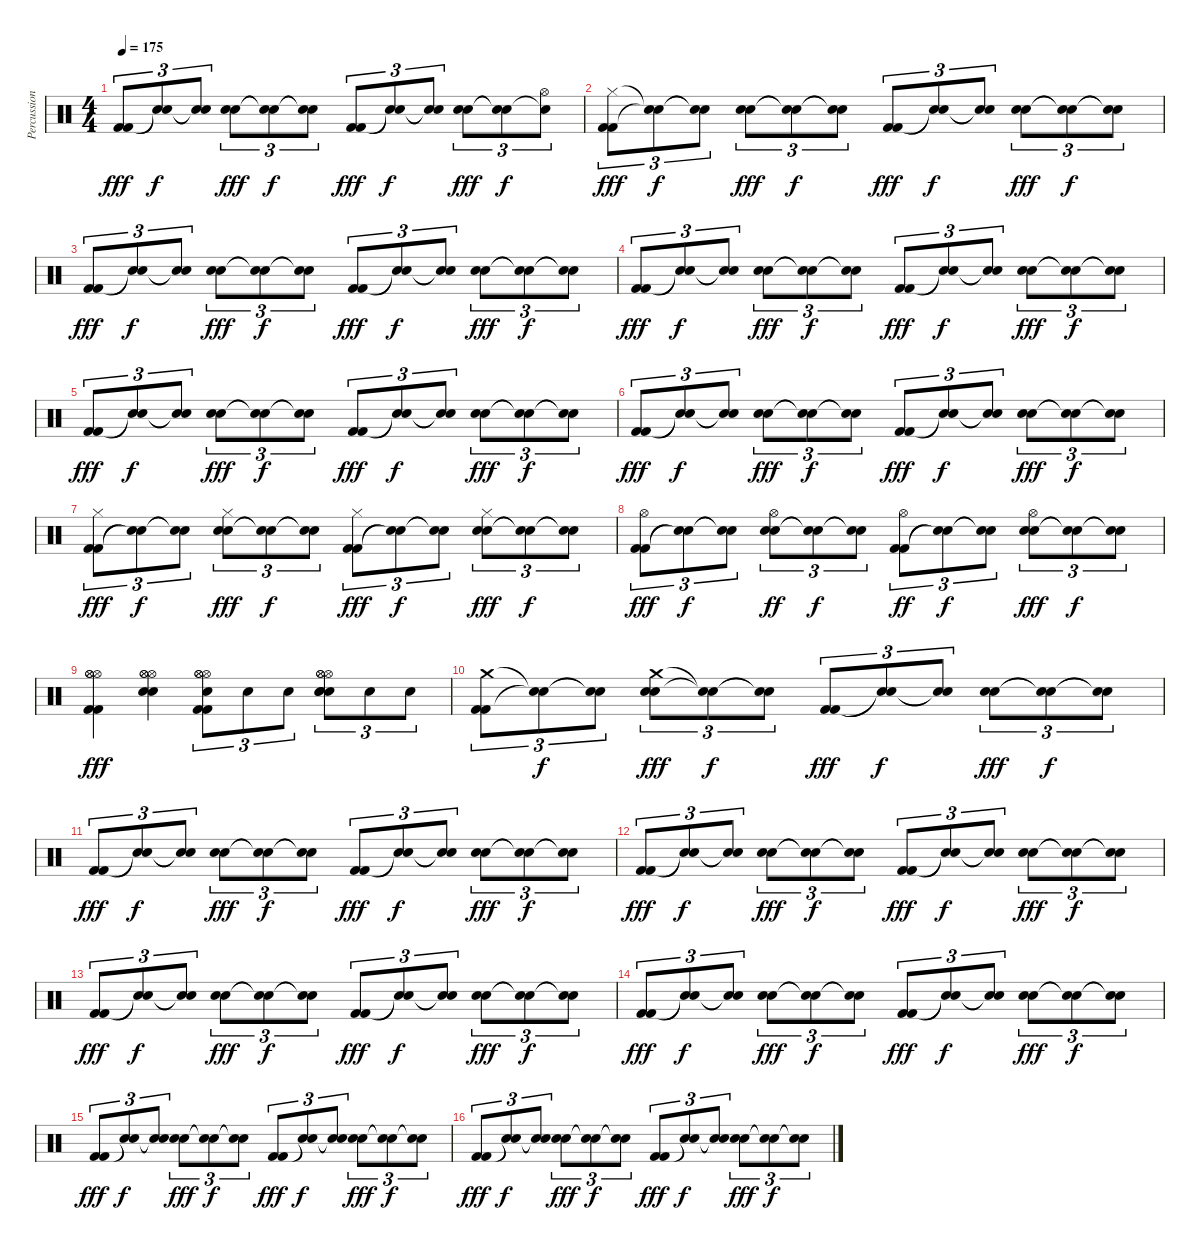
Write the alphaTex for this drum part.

\track ("Percussion" "Percussion") {instrument percussion}
\staff {score}
\articulation defaults
\ts (4 4)
\tempo 175
\clef neutral
\ks c
("Kick (hit) 2" "Kick (hit) 2").8{tu (3 2) dy fff} ("Snare (hit)"{t} "Snare (hit)"{t}).8{tu (3 2) dy f} ("Snare (hit)"{t} "Snare (hit)"{t}).8{tu (3 2)} ("Electric Snare (hit)" "Electric Snare (hit)").8{tu (3 2) dy fff} ("Snare (hit)"{t} "Snare (hit)"{t}).8{tu (3 2) dy f} ("Snare (hit)"{t} "Snare (hit)"{t}).8{tu (3 2)} ("Kick (hit) 2" "Kick (hit) 2").8{tu (3 2) dy fff} ("Snare (hit)"{t} "Snare (hit)"{t}).8{tu (3 2) dy f} ("Snare (hit)"{t} "Snare (hit)"{t}).8{tu (3 2)} ("Electric Snare (hit)" "Electric Snare (hit)").8{tu (3 2) dy fff} ("Snare (hit)"{t} "Snare (hit)"{t}).8{tu (3 2) dy f} ("Hi-Hat (open)" "Snare (hit)"{t}).8{tu (3 2)} |
("Kick (hit) 2" "Hi-Hat (closed)" "Kick (hit) 2").8{tu (3 2) dy fff} ("Snare (hit)"{t} "Snare (hit)"{t}).8{tu (3 2) dy f} ("Snare (hit)"{t} "Snare (hit)"{t}).8{tu (3 2)} ("Electric Snare (hit)" "Electric Snare (hit)").8{tu (3 2) dy fff} ("Snare (hit)"{t} "Snare (hit)"{t}).8{tu (3 2) dy f} ("Snare (hit)"{t} "Snare (hit)"{t}).8{tu (3 2)} ("Kick (hit) 2" "Kick (hit) 2").8{tu (3 2) dy fff} ("Snare (hit)"{t} "Snare (hit)"{t}).8{tu (3 2) dy f} ("Snare (hit)"{t} "Snare (hit)"{t}).8{tu (3 2)} ("Electric Snare (hit)" "Electric Snare (hit)").8{tu (3 2) dy fff} ("Snare (hit)"{t} "Snare (hit)"{t}).8{tu (3 2) dy f} ("Snare (hit)"{t} "Snare (hit)"{t}).8{tu (3 2)} |
("Kick (hit) 2" "Kick (hit) 2").8{tu (3 2) dy fff} ("Snare (hit)"{t} "Snare (hit)"{t}).8{tu (3 2) dy f} ("Snare (hit)"{t} "Snare (hit)"{t}).8{tu (3 2)} ("Electric Snare (hit)" "Electric Snare (hit)").8{tu (3 2) dy fff} ("Snare (hit)"{t} "Snare (hit)"{t}).8{tu (3 2) dy f} ("Snare (hit)"{t} "Snare (hit)"{t}).8{tu (3 2)} ("Kick (hit) 2" "Kick (hit) 2").8{tu (3 2) dy fff} ("Snare (hit)"{t} "Snare (hit)"{t}).8{tu (3 2) dy f} ("Snare (hit)"{t} "Snare (hit)"{t}).8{tu (3 2)} ("Electric Snare (hit)" "Electric Snare (hit)").8{tu (3 2) dy fff} ("Snare (hit)"{t} "Snare (hit)"{t}).8{tu (3 2) dy f} ("Snare (hit)"{t} "Snare (hit)"{t}).8{tu (3 2)} |
("Kick (hit) 2" "Kick (hit) 2").8{tu (3 2) dy fff} ("Snare (hit)"{t} "Snare (hit)"{t}).8{tu (3 2) dy f} ("Snare (hit)"{t} "Snare (hit)"{t}).8{tu (3 2)} ("Electric Snare (hit)" "Electric Snare (hit)").8{tu (3 2) dy fff} ("Snare (hit)"{t} "Snare (hit)"{t}).8{tu (3 2) dy f} ("Snare (hit)"{t} "Snare (hit)"{t}).8{tu (3 2)} ("Kick (hit) 2" "Kick (hit) 2").8{tu (3 2) dy fff} ("Snare (hit)"{t} "Snare (hit)"{t}).8{tu (3 2) dy f} ("Snare (hit)"{t} "Snare (hit)"{t}).8{tu (3 2)} ("Electric Snare (hit)" "Electric Snare (hit)").8{tu (3 2) dy fff} ("Snare (hit)"{t} "Snare (hit)"{t}).8{tu (3 2) dy f} ("Snare (hit)"{t} "Snare (hit)"{t}).8{tu (3 2)} |
("Kick (hit) 2" "Kick (hit) 2").8{tu (3 2) dy fff} ("Snare (hit)"{t} "Snare (hit)"{t}).8{tu (3 2) dy f} ("Snare (hit)"{t} "Snare (hit)"{t}).8{tu (3 2)} ("Electric Snare (hit)" "Electric Snare (hit)").8{tu (3 2) dy fff} ("Snare (hit)"{t} "Snare (hit)"{t}).8{tu (3 2) dy f} ("Snare (hit)"{t} "Snare (hit)"{t}).8{tu (3 2)} ("Kick (hit) 2" "Kick (hit) 2").8{tu (3 2) dy fff} ("Snare (hit)"{t} "Snare (hit)"{t}).8{tu (3 2) dy f} ("Snare (hit)"{t} "Snare (hit)"{t}).8{tu (3 2)} ("Electric Snare (hit)" "Electric Snare (hit)").8{tu (3 2) dy fff} ("Snare (hit)"{t} "Snare (hit)"{t}).8{tu (3 2) dy f} ("Snare (hit)"{t} "Snare (hit)"{t}).8{tu (3 2)} |
("Kick (hit) 2" "Kick (hit) 2").8{tu (3 2) dy fff} ("Snare (hit)"{t} "Snare (hit)"{t}).8{tu (3 2) dy f} ("Snare (hit)"{t} "Snare (hit)"{t}).8{tu (3 2)} ("Electric Snare (hit)" "Electric Snare (hit)").8{tu (3 2) dy fff} ("Snare (hit)"{t} "Snare (hit)"{t}).8{tu (3 2) dy f} ("Snare (hit)"{t} "Snare (hit)"{t}).8{tu (3 2)} ("Kick (hit) 2" "Kick (hit) 2").8{tu (3 2) dy fff} ("Snare (hit)"{t} "Snare (hit)"{t}).8{tu (3 2) dy f} ("Snare (hit)"{t} "Snare (hit)"{t}).8{tu (3 2)} ("Electric Snare (hit)" "Electric Snare (hit)").8{tu (3 2) dy fff} ("Snare (hit)"{t} "Snare (hit)"{t}).8{tu (3 2) dy f} ("Snare (hit)"{t} "Snare (hit)"{t}).8{tu (3 2)} |
("Kick (hit) 2" "Kick (hit) 2" "Hi-Hat (closed)").8{tu (3 2) dy fff} ("Snare (hit)"{t} "Snare (hit)"{t}).8{tu (3 2) dy f} ("Snare (hit)"{t} "Snare (hit)"{t}).8{tu (3 2)} ("Electric Snare (hit)" "Electric Snare (hit)" "Hi-Hat (closed)").8{tu (3 2) dy fff} ("Snare (hit)"{t} "Snare (hit)"{t}).8{tu (3 2) dy f} ("Snare (hit)"{t} "Snare (hit)"{t}).8{tu (3 2)} ("Kick (hit) 2" "Kick (hit) 2" "Hi-Hat (closed)").8{tu (3 2) dy fff} ("Snare (hit)"{t} "Snare (hit)"{t}).8{tu (3 2) dy f} ("Snare (hit)"{t} "Snare (hit)"{t}).8{tu (3 2)} ("Electric Snare (hit)" "Electric Snare (hit)" "Hi-Hat (closed)").8{tu (3 2) dy fff} ("Snare (hit)"{t} "Snare (hit)"{t}).8{tu (3 2) dy f} ("Snare (hit)"{t} "Snare (hit)"{t}).8{tu (3 2)} |
("Kick (hit) 2" "Kick (hit) 2" "Hi-Hat (open)").8{tu (3 2) dy fff} ("Snare (hit)"{t} "Snare (hit)"{t}).8{tu (3 2) dy f} ("Snare (hit)"{t} "Snare (hit)"{t}).8{tu (3 2)} ("Electric Snare (hit)" "Electric Snare (hit)" "Hi-Hat (open)").8{tu (3 2) dy ff} ("Snare (hit)"{t} "Snare (hit)"{t}).8{tu (3 2) dy f} ("Snare (hit)"{t} "Snare (hit)"{t}).8{tu (3 2)} ("Kick (hit) 2" "Kick (hit) 2" "Hi-Hat (open)").8{tu (3 2) dy ff} ("Snare (hit)"{t} "Snare (hit)"{t}).8{tu (3 2) dy f} ("Snare (hit)"{t} "Snare (hit)"{t}).8{tu (3 2)} ("Electric Snare (hit)" "Electric Snare (hit)" "Hi-Hat (open)").8{tu (3 2) dy fff} ("Snare (hit)"{t} "Snare (hit)"{t}).8{tu (3 2) dy f} ("Snare (hit)"{t} "Snare (hit)"{t}).8{tu (3 2)} |
("Hi-Hat (open)" "Hi-Hat (open)" "Hi-Hat (open)" "Kick (hit) 2" "Kick (hit) 2").4{dy fff} ("Hi-Hat (open)" "Hi-Hat (open)" "Hi-Hat (open)" "Electric Snare (hit)" "Electric Snare (hit)").4 ("Hi-Hat (open)" "Hi-Hat (open)" "Hi-Hat (open)" "Snare (hit) 2" "Kick (hit) 2" "Kick (hit) 2").8{tu (3 2)} "Snare (hit) 2".8{tu (3 2)} "Snare (hit) 2".8{tu (3 2)} ("Hi-Hat (open)" "Hi-Hat (open)" "Hi-Hat (open)" "Snare (hit) 2" "Electric Snare (hit)" "Electric Snare (hit)").8{tu (3 2)} "Snare (hit) 2".8{tu (3 2)} "Snare (hit) 2".8{tu (3 2)} |
("Kick (hit) 2" "Crash medium (hit)" "Kick (hit) 2").8{tu (3 2)} ("Snare (hit)"{t} "Snare (hit)"{t}).8{tu (3 2) dy f} ("Snare (hit)"{t} "Snare (hit)"{t}).8{tu (3 2)} ("Electric Snare (hit)" "Crash medium (hit)" "Electric Snare (hit)").8{tu (3 2) dy fff} ("Snare (hit)"{t} "Snare (hit)"{t}).8{tu (3 2) dy f} ("Snare (hit)"{t} "Snare (hit)"{t}).8{tu (3 2)} ("Kick (hit) 2" "Kick (hit) 2").8{tu (3 2) dy fff} ("Snare (hit)"{t} "Snare (hit)"{t}).8{tu (3 2) dy f} ("Snare (hit)"{t} "Snare (hit)"{t}).8{tu (3 2)} ("Electric Snare (hit)" "Electric Snare (hit)").8{tu (3 2) dy fff} ("Snare (hit)"{t} "Snare (hit)"{t}).8{tu (3 2) dy f} ("Snare (hit)"{t} "Snare (hit)"{t}).8{tu (3 2)} |
("Kick (hit) 2" "Kick (hit) 2").8{tu (3 2) dy fff} ("Snare (hit)"{t} "Snare (hit)"{t}).8{tu (3 2) dy f} ("Snare (hit)"{t} "Snare (hit)"{t}).8{tu (3 2)} ("Electric Snare (hit)" "Electric Snare (hit)").8{tu (3 2) dy fff} ("Snare (hit)"{t} "Snare (hit)"{t}).8{tu (3 2) dy f} ("Snare (hit)"{t} "Snare (hit)"{t}).8{tu (3 2)} ("Kick (hit) 2" "Kick (hit) 2").8{tu (3 2) dy fff} ("Snare (hit)"{t} "Snare (hit)"{t}).8{tu (3 2) dy f} ("Snare (hit)"{t} "Snare (hit)"{t}).8{tu (3 2)} ("Electric Snare (hit)" "Electric Snare (hit)").8{tu (3 2) dy fff} ("Snare (hit)"{t} "Snare (hit)"{t}).8{tu (3 2) dy f} ("Snare (hit)"{t} "Snare (hit)"{t}).8{tu (3 2)} |
("Kick (hit) 2" "Kick (hit) 2").8{tu (3 2) dy fff} ("Snare (hit)"{t} "Snare (hit)"{t}).8{tu (3 2) dy f} ("Snare (hit)"{t} "Snare (hit)"{t}).8{tu (3 2)} ("Electric Snare (hit)" "Electric Snare (hit)").8{tu (3 2) dy fff} ("Snare (hit)"{t} "Snare (hit)"{t}).8{tu (3 2) dy f} ("Snare (hit)"{t} "Snare (hit)"{t}).8{tu (3 2)} ("Kick (hit) 2" "Kick (hit) 2").8{tu (3 2) dy fff} ("Snare (hit)"{t} "Snare (hit)"{t}).8{tu (3 2) dy f} ("Snare (hit)"{t} "Snare (hit)"{t}).8{tu (3 2)} ("Electric Snare (hit)" "Electric Snare (hit)").8{tu (3 2) dy fff} ("Snare (hit)"{t} "Snare (hit)"{t}).8{tu (3 2) dy f} ("Snare (hit)"{t} "Snare (hit)"{t}).8{tu (3 2)} |
("Kick (hit) 2" "Kick (hit) 2").8{tu (3 2) dy fff} ("Snare (hit)"{t} "Snare (hit)"{t}).8{tu (3 2) dy f} ("Snare (hit)"{t} "Snare (hit)"{t}).8{tu (3 2)} ("Electric Snare (hit)" "Electric Snare (hit)").8{tu (3 2) dy fff} ("Snare (hit)"{t} "Snare (hit)"{t}).8{tu (3 2) dy f} ("Snare (hit)"{t} "Snare (hit)"{t}).8{tu (3 2)} ("Kick (hit) 2" "Kick (hit) 2").8{tu (3 2) dy fff} ("Snare (hit)"{t} "Snare (hit)"{t}).8{tu (3 2) dy f} ("Snare (hit)"{t} "Snare (hit)"{t}).8{tu (3 2)} ("Electric Snare (hit)" "Electric Snare (hit)").8{tu (3 2) dy fff} ("Snare (hit)"{t} "Snare (hit)"{t}).8{tu (3 2) dy f} ("Snare (hit)"{t} "Snare (hit)"{t}).8{tu (3 2)} |
("Kick (hit) 2" "Kick (hit) 2").8{tu (3 2) dy fff} ("Snare (hit)"{t} "Snare (hit)"{t}).8{tu (3 2) dy f} ("Snare (hit)"{t} "Snare (hit)"{t}).8{tu (3 2)} ("Electric Snare (hit)" "Electric Snare (hit)").8{tu (3 2) dy fff} ("Snare (hit)"{t} "Snare (hit)"{t}).8{tu (3 2) dy f} ("Snare (hit)"{t} "Snare (hit)"{t}).8{tu (3 2)} ("Kick (hit) 2" "Kick (hit) 2").8{tu (3 2) dy fff} ("Snare (hit)"{t} "Snare (hit)"{t}).8{tu (3 2) dy f} ("Snare (hit)"{t} "Snare (hit)"{t}).8{tu (3 2)} ("Electric Snare (hit)" "Electric Snare (hit)").8{tu (3 2) dy fff} ("Snare (hit)"{t} "Snare (hit)"{t}).8{tu (3 2) dy f} ("Snare (hit)"{t} "Snare (hit)"{t}).8{tu (3 2)} |
("Kick (hit) 2" "Kick (hit) 2").8{tu (3 2) dy fff} ("Snare (hit)"{t} "Snare (hit)"{t}).8{tu (3 2) dy f} ("Snare (hit)"{t} "Snare (hit)"{t}).8{tu (3 2)} ("Electric Snare (hit)" "Electric Snare (hit)").8{tu (3 2) dy fff} ("Snare (hit)"{t} "Snare (hit)"{t}).8{tu (3 2) dy f} ("Snare (hit)"{t} "Snare (hit)"{t}).8{tu (3 2)} ("Kick (hit) 2" "Kick (hit) 2").8{tu (3 2) dy fff} ("Snare (hit)"{t} "Snare (hit)"{t}).8{tu (3 2) dy f} ("Snare (hit)"{t} "Snare (hit)"{t}).8{tu (3 2)} ("Electric Snare (hit)" "Electric Snare (hit)").8{tu (3 2) dy fff} ("Snare (hit)"{t} "Snare (hit)"{t}).8{tu (3 2) dy f} ("Snare (hit)"{t} "Snare (hit)"{t}).8{tu (3 2)} |
("Kick (hit) 2" "Kick (hit) 2").8{tu (3 2) dy fff} ("Snare (hit)"{t} "Snare (hit)"{t}).8{tu (3 2) dy f} ("Snare (hit)"{t} "Snare (hit)"{t}).8{tu (3 2)} ("Electric Snare (hit)" "Electric Snare (hit)").8{tu (3 2) dy fff} ("Snare (hit)"{t} "Snare (hit)"{t}).8{tu (3 2) dy f} ("Snare (hit)"{t} "Snare (hit)"{t}).8{tu (3 2)} ("Kick (hit) 2" "Kick (hit) 2").8{tu (3 2) dy fff} ("Snare (hit)"{t} "Snare (hit)"{t}).8{tu (3 2) dy f} ("Snare (hit)"{t} "Snare (hit)"{t}).8{tu (3 2)} ("Electric Snare (hit)" "Electric Snare (hit)").8{tu (3 2) dy fff} ("Snare (hit)"{t} "Snare (hit)"{t}).8{tu (3 2) dy f} ("Snare (hit)"{t} "Snare (hit)"{t}).8{tu (3 2)}
